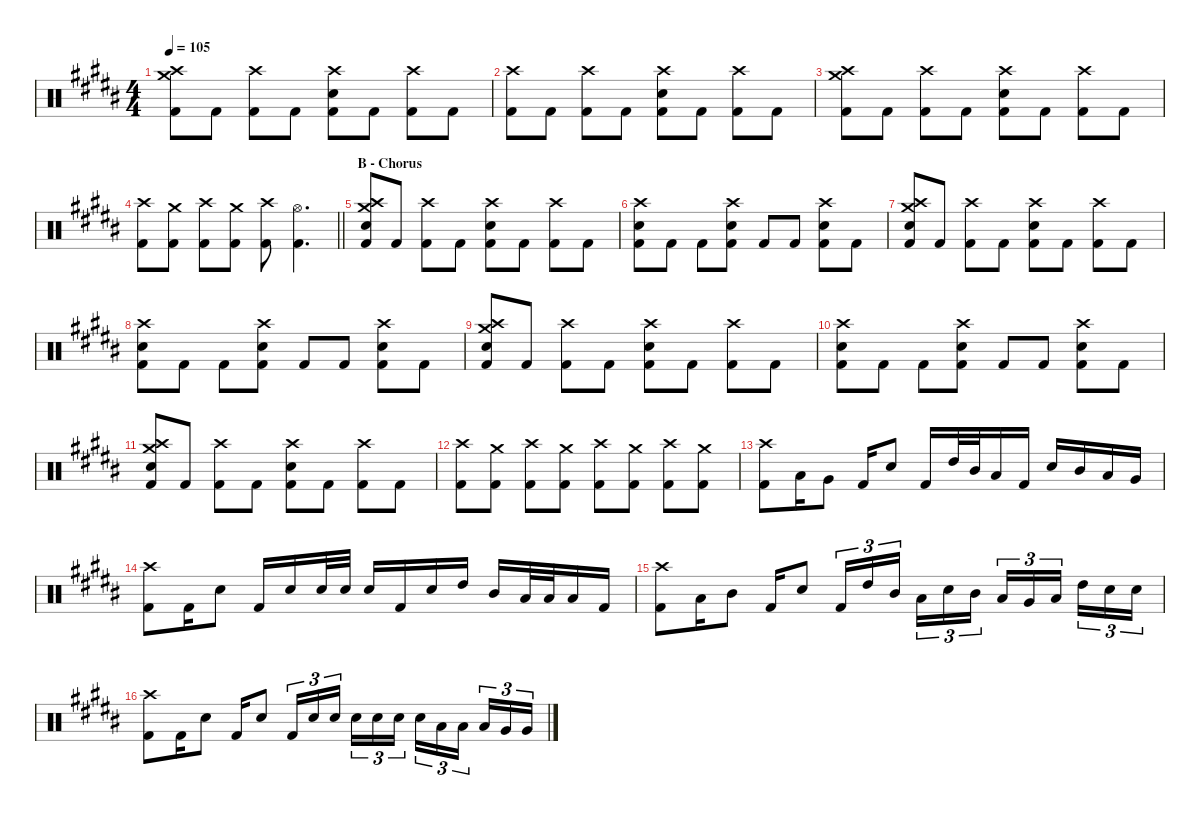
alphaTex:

\defaultSystemsLayout 4
\hideDynamics
\bracketExtendMode nobrackets
\singleTrackTrackNamePolicy hidden
\multiTrackTrackNamePolicy hidden
\firstSystemTrackNameMode fullname
\firstSystemTrackNameOrientation horizontal
\otherSystemsTrackNameOrientation horizontal
\track ("Percussions" "drm.") {instrument percussion}
\staff {score}
\articulation defaults
\ts (4 4)
\tempo 105
\clef neutral
\ks b
("Crash medium (hit)"{acc bb} "Crash high (hit)"{acc bb} "Kick (hit) 2"{acc bb}).8{dy f beam Down} "Kick (hit) 2"{acc bb}.8{beam Down} ("Crash high (hit)"{acc bb} "Kick (hit) 2"{acc bb}).8{beam Down} "Kick (hit) 2"{acc bb}.8{beam Down} ("Crash high (hit)"{acc bb} "Snare (hit) 2"{acc bb} "Kick (hit) 2"{acc bb}).8{beam Down} "Kick (hit) 2"{acc bb}.8{beam Down} ("Crash high (hit)"{acc bb} "Kick (hit) 2"{acc bb}).8{beam Down} "Kick (hit) 2"{acc bb}.8{beam Down} |
("Crash high (hit)"{acc bb} "Kick (hit) 2"{acc bb}).8{beam Down} "Kick (hit) 2"{acc bb}.8{beam Down} ("Crash high (hit)"{acc bb} "Kick (hit) 2"{acc bb}).8{beam Down} "Kick (hit) 2"{acc bb}.8{beam Down} ("Crash high (hit)"{acc bb} "Snare (hit) 2"{acc bb} "Kick (hit) 2"{acc bb}).8{beam Down} "Kick (hit) 2"{acc bb}.8{beam Down} ("Crash high (hit)"{acc bb} "Kick (hit) 2"{acc bb}).8{beam Down} "Kick (hit) 2"{acc bb}.8{beam Down} |
("Crash medium (hit)"{acc bb} "Crash high (hit)"{acc bb} "Kick (hit) 2"{acc bb}).8{beam Down} "Kick (hit) 2"{acc bb}.8{beam Down} ("Crash high (hit)"{acc bb} "Kick (hit) 2"{acc bb}).8{beam Down} "Kick (hit) 2"{acc bb}.8{beam Down} ("Crash high (hit)"{acc bb} "Snare (hit) 2"{acc bb} "Kick (hit) 2"{acc bb}).8{beam Down} "Kick (hit) 2"{acc bb}.8{beam Down} ("Crash high (hit)"{acc bb} "Kick (hit) 2"{acc bb}).8{beam Down} "Kick (hit) 2"{acc bb}.8{beam Down} |
\barLineRight lightlight
("Crash high (hit)"{acc bb} "Kick (hit) 2"{acc bb}).8{beam Down} ("Crash medium (hit)"{acc bb} "Kick (hit) 2"{acc bb}).8{beam Down} ("Crash high (hit)"{acc bb} "Kick (hit) 2"{acc bb}).8{beam Down} ("Crash medium (hit)"{acc bb} "Kick (hit) 2"{acc bb}).8{beam Down} ("Crash high (hit)"{acc bb} "Kick (hit) 2"{acc bb}).8{beam Down} ("Hi-Hat (open)"{acc bb} "Kick (hit) 2"{acc bb}).4{d beam Down} |
\section ("" "B - Chorus")
("Crash medium (hit)"{acc bb} "Crash high (hit)"{acc bb} "Snare (hit) 2"{acc bb} "Kick (hit) 2"{acc bb}).8{beam Up} "Kick (hit) 2"{acc bb}.8{beam Up} ("Crash high (hit)"{acc bb} "Kick (hit) 2"{acc bb}).8{beam Down} "Kick (hit) 2"{acc bb}.8{beam Down} ("Crash high (hit)"{acc bb} "Snare (hit) 2"{acc bb} "Kick (hit) 2"{acc bb}).8{beam Down} "Kick (hit) 2"{acc bb}.8{beam Down} ("Crash high (hit)"{acc bb} "Kick (hit) 2"{acc bb}).8{beam Down} "Kick (hit) 2"{acc bb}.8{beam Down} |
("Crash high (hit)"{acc bb} "Snare (hit) 2"{acc bb} "Kick (hit) 2"{acc bb}).8{beam Down} "Kick (hit) 2"{acc bb}.8{beam Down} "Kick (hit) 2"{acc bb}.8{beam Down} ("Crash high (hit)"{acc bb} "Snare (hit) 2"{acc bb} "Kick (hit) 2"{acc bb}).8{dy fff beam Down} "Kick (hit) 2"{acc bb}.8{dy f beam Up} "Kick (hit) 2"{acc bb}.8{beam Up} ("Crash high (hit)"{acc bb} "Snare (hit) 2"{acc bb} "Kick (hit) 2"{acc bb}).8{beam Down} "Kick (hit) 2"{acc bb}.8{beam Down} |
("Crash medium (hit)"{acc bb} "Crash high (hit)"{acc bb} "Snare (hit) 2"{acc bb} "Kick (hit) 2"{acc bb}).8{beam Up} "Kick (hit) 2"{acc bb}.8{beam Up} ("Crash high (hit)"{acc bb} "Kick (hit) 2"{acc bb}).8{beam Down} "Kick (hit) 2"{acc bb}.8{beam Down} ("Crash high (hit)"{acc bb} "Snare (hit) 2"{acc bb} "Kick (hit) 2"{acc bb}).8{beam Down} "Kick (hit) 2"{acc bb}.8{beam Down} ("Crash high (hit)"{acc bb} "Kick (hit) 2"{acc bb}).8{beam Down} "Kick (hit) 2"{acc bb}.8{beam Down} |
("Crash high (hit)"{acc bb} "Snare (hit) 2"{acc bb} "Kick (hit) 2"{acc bb}).8{beam Down} "Kick (hit) 2"{acc bb}.8{beam Down} "Kick (hit) 2"{acc bb}.8{beam Down} ("Crash high (hit)"{acc bb} "Snare (hit) 2"{acc bb} "Kick (hit) 2"{acc bb}).8{dy fff beam Down} "Kick (hit) 2"{acc bb}.8{dy f beam Up} "Kick (hit) 2"{acc bb}.8{beam Up} ("Crash high (hit)"{acc bb} "Snare (hit) 2"{acc bb} "Kick (hit) 2"{acc bb}).8{beam Down} "Kick (hit) 2"{acc bb}.8{beam Down} |
("Crash medium (hit)"{acc bb} "Crash high (hit)"{acc bb} "Snare (hit) 2"{acc bb} "Kick (hit) 2"{acc bb}).8{beam Up} "Kick (hit) 2"{acc bb}.8{beam Up} ("Crash high (hit)"{acc bb} "Kick (hit) 2"{acc bb}).8{beam Down} "Kick (hit) 2"{acc bb}.8{beam Down} ("Crash high (hit)"{acc bb} "Snare (hit) 2"{acc bb} "Kick (hit) 2"{acc bb}).8{beam Down} "Kick (hit) 2"{acc bb}.8{beam Down} ("Crash high (hit)"{acc bb} "Kick (hit) 2"{acc bb}).8{beam Down} "Kick (hit) 2"{acc bb}.8{beam Down} |
("Crash high (hit)"{acc bb} "Snare (hit) 2"{acc bb} "Kick (hit) 2"{acc bb}).8{beam Down} "Kick (hit) 2"{acc bb}.8{beam Down} "Kick (hit) 2"{acc bb}.8{beam Down} ("Crash high (hit)"{acc bb} "Snare (hit) 2"{acc bb} "Kick (hit) 2"{acc bb}).8{dy fff beam Down} "Kick (hit) 2"{acc bb}.8{dy f beam Up} "Kick (hit) 2"{acc bb}.8{beam Up} ("Crash high (hit)"{acc bb} "Snare (hit) 2"{acc bb} "Kick (hit) 2"{acc bb}).8{beam Down} "Kick (hit) 2"{acc bb}.8{beam Down} |
("Crash medium (hit)"{acc bb} "Crash high (hit)"{acc bb} "Snare (hit) 2"{acc bb} "Kick (hit) 2"{acc bb}).8{beam Up} "Kick (hit) 2"{acc bb}.8{beam Up} ("Crash high (hit)"{acc bb} "Kick (hit) 2"{acc bb}).8{beam Down} "Kick (hit) 2"{acc bb}.8{beam Down} ("Crash high (hit)"{acc bb} "Snare (hit) 2"{acc bb} "Kick (hit) 2"{acc bb}).8{beam Down} "Kick (hit) 2"{acc bb}.8{beam Down} ("Crash high (hit)"{acc bb} "Kick (hit) 2"{acc bb}).8{beam Down} "Kick (hit) 2"{acc bb}.8{beam Down} |
("Crash high (hit)"{acc bb} "Kick (hit) 2"{acc bb}).8{beam Down} ("Crash medium (hit)"{acc bb} "Kick (hit) 2"{acc bb}).8{beam Down} ("Crash high (hit)"{acc bb} "Kick (hit) 2"{acc bb}).8{beam Down} ("Crash medium (hit)"{acc bb} "Kick (hit) 2"{acc bb}).8{beam Down} ("Crash high (hit)"{acc bb} "Kick (hit) 2"{acc bb}).8{beam Down} ("Crash medium (hit)"{acc bb} "Kick (hit) 2"{acc bb}).8{beam Down} ("Crash high (hit)"{acc bb} "Kick (hit) 2"{acc bb}).8{beam Down} ("Crash medium (hit)"{acc bb} "Kick (hit) 2"{acc bb}).8{beam Down} |
("Crash high (hit)"{acc bb} "Kick (hit) 2"{acc bb}).8{beam Down} "Low Tom (hit)"{acc bb}.16{beam Down} "Very Low Tom (hit)"{acc bb}.8{beam Down} "Kick (hit) 2"{acc bb}.16{beam Up} "Snare (hit) 2"{acc bb}.8{beam Up} "Kick (hit) 2"{acc bb}.16{beam Up} "High Tom (hit)"{acc bb}.32{beam Up} "Mid Tom (hit)"{acc bb}.32{beam Up} "Low Tom (hit)"{acc bb}.16{beam Up} "Kick (hit) 2"{acc bb}.16{beam Up} "Snare (hit) 2"{acc bb}.16{beam Up} "Mid Tom (hit)"{acc bb}.16{beam Up} "Low Tom (hit)"{acc bb}.16{beam Up} "Very Low Tom (hit)"{acc bb}.16{beam Up} |
("Crash high (hit)"{acc bb} "Kick (hit) 2"{acc bb}).8{beam Down} "Kick (hit) 2"{acc bb}.16{beam Down} "Snare (hit) 2"{acc bb}.8{beam Down} "Kick (hit) 2"{acc bb}.16{beam Up} "Snare (hit) 2"{acc bb}.16{beam Up} "Snare (hit) 2"{acc bb}.32{beam Up} "Snare (hit) 2"{acc bb}.32{beam Up} "Snare (hit) 2"{acc bb}.16{beam Up} "Kick (hit) 2"{acc bb}.16{beam Up} "Snare (hit) 2"{acc bb}.16{beam Up} "High Tom (hit)"{acc bb}.16{beam Up} "Mid Tom (hit)"{acc bb}.16{beam Up} "Low Tom (hit)"{acc bb}.32{beam Up} "Low Floor Tom (hit)"{acc bb}.32{beam Up} "Low Floor Tom (hit)"{acc bb}.16{beam Up} "Kick (hit) 2"{acc bb}.16{beam Up} |
("Crash high (hit)"{acc bb} "Kick (hit) 2"{acc bb}).8{beam Down} "Low Floor Tom (hit)"{acc bb}.16{beam Down} "Mid Tom (hit)"{acc bb}.8{beam Down} "Kick (hit) 2"{acc bb}.16{beam Up} "Snare (hit) 2"{acc bb}.8{beam Up} "Kick (hit) 2"{acc bb}.16{tu (3 2) beam Up} "High Tom (hit)"{acc bb}.16{tu (3 2) beam Up} "Mid Tom (hit)"{acc bb}.16{tu (3 2) beam Up} "Low Tom (hit)"{acc bb}.16{tu (3 2) beam Down} "Snare (hit) 2"{acc bb}.16{tu (3 2) beam Down} "Mid Tom (hit)"{acc bb}.16{tu (3 2) beam Down} "Low Tom (hit)"{acc bb}.16{tu (3 2) beam Up} "Very Low Tom (hit)"{acc bb}.16{tu (3 2) beam Up} "Low Tom (hit)"{acc bb}.16{tu (3 2) beam Up} "High Tom (hit)"{acc bb}.16{tu (3 2) beam Down} "Snare (hit) 2"{acc bb}.16{tu (3 2) beam Down} "Snare (hit) 2"{acc bb}.16{tu (3 2) beam Down} |
("Crash high (hit)"{acc bb} "Kick (hit) 2"{acc bb}).8{beam Down} "Kick (hit) 2"{acc bb}.16{beam Down} "Snare (hit) 2"{acc bb}.8{beam Down} "Kick (hit) 2"{acc bb}.16{beam Up} "Snare (hit) 2"{acc bb}.8{beam Up} "Kick (hit) 2"{acc bb}.16{tu (3 2) beam Up} "Snare (hit) 2"{acc bb}.16{tu (3 2) beam Up} "Snare (hit) 2"{acc bb}.16{tu (3 2) beam Up} "Snare (hit) 2"{acc bb}.16{tu (3 2) beam Down} "Snare (hit) 2"{acc bb}.16{tu (3 2) beam Down} "Snare (hit) 2"{acc bb}.16{tu (3 2) beam Down} "Snare (hit) 2"{acc bb}.16{tu (3 2) beam Down} "Low Tom (hit)"{acc bb}.16{tu (3 2) beam Down} "Low Tom (hit)"{acc bb}.16{tu (3 2) beam Down} "Low Tom (hit)"{acc bb}.16{tu (3 2) beam Up} "Very Low Tom (hit)"{acc bb}.16{tu (3 2) beam Up} "Very Low Tom (hit)"{acc bb}.16{tu (3 2) beam Up}
